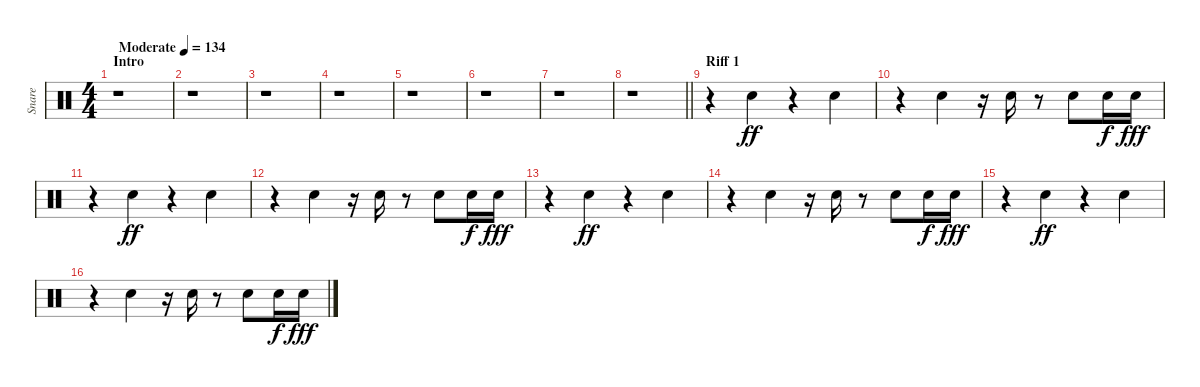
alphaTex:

\track ("Snare" "Snare") {instrument percussion}
\staff {score}
\articulation defaults
\ts (4 4)
\section ("" "Intro")
\tempo (134 "Moderate")
\clef neutral
\ks c
r.1{dy ff} |
r.1 |
r.1 |
r.1 |
r.1 |
r.1 |
r.1 |
\barLineRight lightlight
r.1 |
\section ("" "Riff 1")
r.4 "Snare (hit) 2".4 r.4 "Snare (hit) 2".4 |
r.4 "Snare (hit) 2".4 r.16 "Snare (hit) 2".16 r.8 "Snare (hit) 2".8 "Snare (hit) 2".16{dy f} "Snare (hit) 2".16{dy fff} |
r.4 "Snare (hit) 2".4{dy ff} r.4 "Snare (hit) 2".4 |
r.4 "Snare (hit) 2".4 r.16 "Snare (hit) 2".16 r.8 "Snare (hit) 2".8 "Snare (hit) 2".16{dy f} "Snare (hit) 2".16{dy fff} |
r.4 "Snare (hit) 2".4{dy ff} r.4 "Snare (hit) 2".4 |
r.4 "Snare (hit) 2".4 r.16 "Snare (hit) 2".16 r.8 "Snare (hit) 2".8 "Snare (hit) 2".16{dy f} "Snare (hit) 2".16{dy fff} |
r.4 "Snare (hit) 2".4{dy ff} r.4 "Snare (hit) 2".4 |
r.4 "Snare (hit) 2".4 r.16 "Snare (hit) 2".16 r.8 "Snare (hit) 2".8 "Snare (hit) 2".16{dy f} "Snare (hit) 2".16{dy fff}
